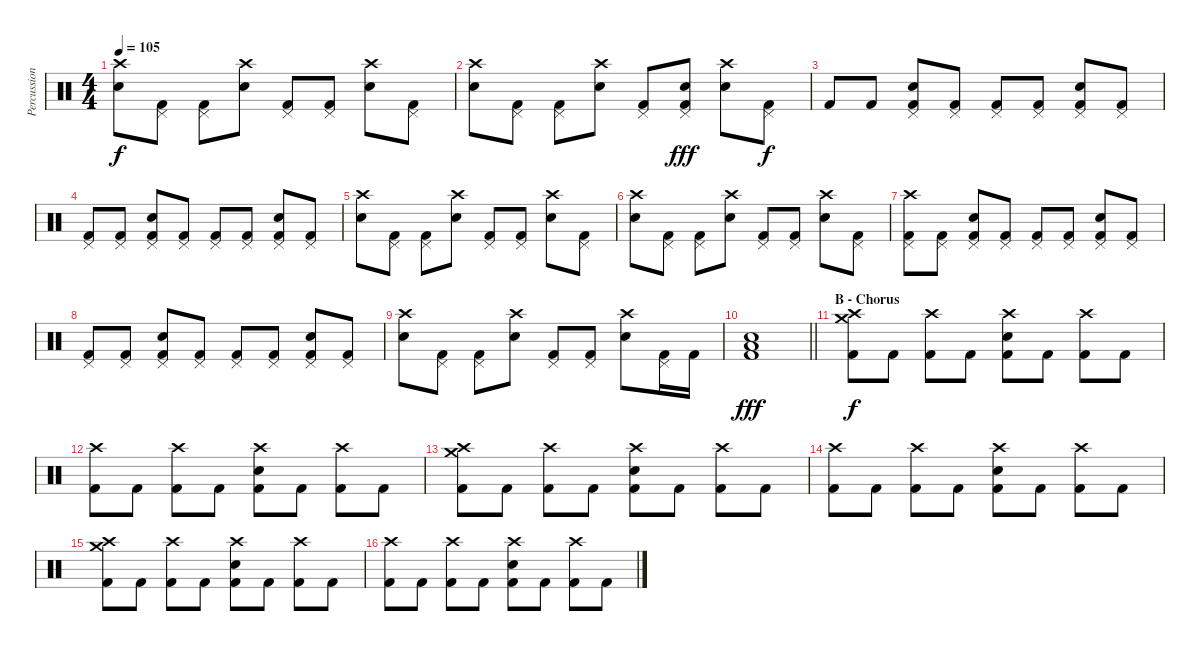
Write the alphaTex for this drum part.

\track ("Percussions" "Percussion") {instrument percussion}
\staff {score}
\articulation defaults
\ts (4 4)
\tempo 105
\clef neutral
\ks c
("Crash high (hit)" "Snare (hit) 2").8{dy f} ("Pedal Hi-Hat (hit)" "Kick (hit) 2").8 ("Pedal Hi-Hat (hit)" "Kick (hit) 2").8 ("Crash high (hit)" "Snare (hit) 2").8 ("Pedal Hi-Hat (hit)" "Kick (hit) 2").8 ("Pedal Hi-Hat (hit)" "Kick (hit) 2").8 ("Crash high (hit)" "Snare (hit) 2").8 ("Pedal Hi-Hat (hit)" "Kick (hit) 2").8 |
("Crash high (hit)" "Snare (hit) 2").8 ("Pedal Hi-Hat (hit)" "Kick (hit) 2").8 ("Pedal Hi-Hat (hit)" "Kick (hit) 2").8 ("Crash high (hit)" "Snare (hit) 2").8 ("Pedal Hi-Hat (hit)" "Kick (hit) 2").8 ("Pedal Hi-Hat (hit)" "Snare (hit) 2" "Kick (hit) 2").8{dy fff} ("Crash high (hit)" "Snare (hit) 2").8 ("Pedal Hi-Hat (hit)" "Kick (hit) 2").8{dy f} |
"Kick (hit) 2".8 "Kick (hit) 2".8 ("Pedal Hi-Hat (hit)" "Snare (hit) 2" "Kick (hit) 2").8 ("Pedal Hi-Hat (hit)" "Kick (hit) 2").8 ("Pedal Hi-Hat (hit)" "Kick (hit) 2").8 ("Pedal Hi-Hat (hit)" "Kick (hit) 2").8 ("Pedal Hi-Hat (hit)" "Snare (hit) 2" "Kick (hit) 2").8 ("Pedal Hi-Hat (hit)" "Kick (hit) 2").8 |
("Pedal Hi-Hat (hit)" "Kick (hit) 2").8 ("Pedal Hi-Hat (hit)" "Kick (hit) 2").8 ("Pedal Hi-Hat (hit)" "Snare (hit) 2" "Kick (hit) 2").8 ("Pedal Hi-Hat (hit)" "Kick (hit) 2").8 ("Pedal Hi-Hat (hit)" "Kick (hit) 2").8 ("Pedal Hi-Hat (hit)" "Kick (hit) 2").8 ("Pedal Hi-Hat (hit)" "Snare (hit) 2" "Kick (hit) 2").8 ("Pedal Hi-Hat (hit)" "Kick (hit) 2").8 |
("Crash high (hit)" "Snare (hit) 2").8 ("Pedal Hi-Hat (hit)" "Kick (hit) 2").8 ("Pedal Hi-Hat (hit)" "Kick (hit) 2").8 ("Crash high (hit)" "Snare (hit) 2").8 ("Pedal Hi-Hat (hit)" "Kick (hit) 2").8 ("Pedal Hi-Hat (hit)" "Kick (hit) 2").8 ("Crash high (hit)" "Snare (hit) 2").8 ("Pedal Hi-Hat (hit)" "Kick (hit) 2").8 |
("Crash high (hit)" "Snare (hit) 2").8 ("Pedal Hi-Hat (hit)" "Kick (hit) 2").8 ("Pedal Hi-Hat (hit)" "Kick (hit) 2").8 ("Crash high (hit)" "Snare (hit) 2").8 ("Pedal Hi-Hat (hit)" "Kick (hit) 2").8 ("Pedal Hi-Hat (hit)" "Kick (hit) 2").8 ("Crash high (hit)" "Snare (hit) 2").8 ("Pedal Hi-Hat (hit)" "Kick (hit) 2").8 |
("Crash high (hit)" "Pedal Hi-Hat (hit)" "Kick (hit) 2").8 ("Pedal Hi-Hat (hit)" "Kick (hit) 2").8 ("Pedal Hi-Hat (hit)" "Snare (hit) 2" "Kick (hit) 2").8 ("Pedal Hi-Hat (hit)" "Kick (hit) 2").8 ("Pedal Hi-Hat (hit)" "Kick (hit) 2").8 ("Pedal Hi-Hat (hit)" "Kick (hit) 2").8 ("Pedal Hi-Hat (hit)" "Snare (hit) 2" "Kick (hit) 2").8 ("Pedal Hi-Hat (hit)" "Kick (hit) 2").8 |
("Pedal Hi-Hat (hit)" "Kick (hit) 2").8 ("Pedal Hi-Hat (hit)" "Kick (hit) 2").8 ("Pedal Hi-Hat (hit)" "Snare (hit) 2" "Kick (hit) 2").8 ("Pedal Hi-Hat (hit)" "Kick (hit) 2").8 ("Pedal Hi-Hat (hit)" "Kick (hit) 2").8 ("Pedal Hi-Hat (hit)" "Kick (hit) 2").8 ("Pedal Hi-Hat (hit)" "Snare (hit) 2" "Kick (hit) 2").8 ("Pedal Hi-Hat (hit)" "Kick (hit) 2").8 |
("Crash high (hit)" "Snare (hit) 2").8 ("Pedal Hi-Hat (hit)" "Kick (hit) 2").8 ("Pedal Hi-Hat (hit)" "Kick (hit) 2").8 ("Crash high (hit)" "Snare (hit) 2").8 ("Pedal Hi-Hat (hit)" "Kick (hit) 2").8 ("Pedal Hi-Hat (hit)" "Kick (hit) 2").8 ("Crash high (hit)" "Snare (hit) 2").8 ("Pedal Hi-Hat (hit)" "Kick (hit) 2").16 "Kick (hit) 2".16 |
\barLineRight lightlight
("Low Tom (hit)" "Snare (hit) 2" "Kick (hit) 2").1{dy fff} |
\section ("" "B - Chorus")
("Crash medium (hit)" "Crash high (hit)" "Kick (hit) 2").8{dy f} "Kick (hit) 2".8 ("Crash high (hit)" "Kick (hit) 2").8 "Kick (hit) 2".8 ("Crash high (hit)" "Snare (hit) 2" "Kick (hit) 2").8 "Kick (hit) 2".8 ("Crash high (hit)" "Kick (hit) 2").8 "Kick (hit) 2".8 |
("Crash high (hit)" "Kick (hit) 2").8 "Kick (hit) 2".8 ("Crash high (hit)" "Kick (hit) 2").8 "Kick (hit) 2".8 ("Crash high (hit)" "Snare (hit) 2" "Kick (hit) 2").8 "Kick (hit) 2".8 ("Crash high (hit)" "Kick (hit) 2").8 "Kick (hit) 2".8 |
("Crash medium (hit)" "Crash high (hit)" "Kick (hit) 2").8 "Kick (hit) 2".8 ("Crash high (hit)" "Kick (hit) 2").8 "Kick (hit) 2".8 ("Crash high (hit)" "Snare (hit) 2" "Kick (hit) 2").8 "Kick (hit) 2".8 ("Crash high (hit)" "Kick (hit) 2").8 "Kick (hit) 2".8 |
("Crash high (hit)" "Kick (hit) 2").8 "Kick (hit) 2".8 ("Crash high (hit)" "Kick (hit) 2").8 "Kick (hit) 2".8 ("Crash high (hit)" "Snare (hit) 2" "Kick (hit) 2").8 "Kick (hit) 2".8 ("Crash high (hit)" "Kick (hit) 2").8 "Kick (hit) 2".8 |
("Crash medium (hit)" "Crash high (hit)" "Kick (hit) 2").8 "Kick (hit) 2".8 ("Crash high (hit)" "Kick (hit) 2").8 "Kick (hit) 2".8 ("Crash high (hit)" "Snare (hit) 2" "Kick (hit) 2").8 "Kick (hit) 2".8 ("Crash high (hit)" "Kick (hit) 2").8 "Kick (hit) 2".8 |
("Crash high (hit)" "Kick (hit) 2").8 "Kick (hit) 2".8 ("Crash high (hit)" "Kick (hit) 2").8 "Kick (hit) 2".8 ("Crash high (hit)" "Snare (hit) 2" "Kick (hit) 2").8 "Kick (hit) 2".8 ("Crash high (hit)" "Kick (hit) 2").8 "Kick (hit) 2".8
